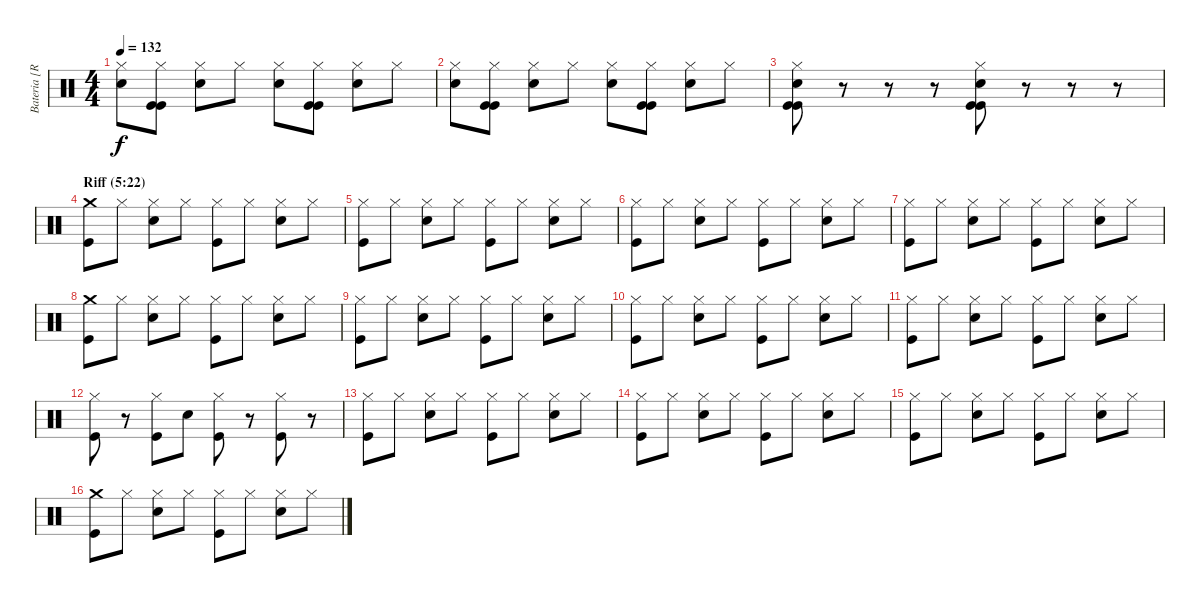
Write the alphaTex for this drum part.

\track ("Bateria [Ricardo Confessori]" "Bateria [R") {instrument percussion}
\staff {score}
\articulation defaults
\ts (4 4)
\tempo 132
\clef neutral
\ks c
("Hi-Hat (closed)" "Electric Snare (hit)").8{dy f} ("Hi-Hat (closed)" "Kick (hit)" "Kick (hit)").8 ("Hi-Hat (closed)" "Electric Snare (hit)").8 "Hi-Hat (closed)".8 ("Hi-Hat (closed)" "Electric Snare (hit)").8 ("Hi-Hat (closed)" "Kick (hit)" "Kick (hit)").8 ("Hi-Hat (closed)" "Electric Snare (hit)").8 "Hi-Hat (closed)".8 |
("Hi-Hat (closed)" "Electric Snare (hit)").8 ("Hi-Hat (closed)" "Kick (hit)" "Kick (hit)").8 ("Hi-Hat (closed)" "Electric Snare (hit)").8 "Hi-Hat (closed)".8 ("Hi-Hat (closed)" "Electric Snare (hit)").8 ("Hi-Hat (closed)" "Kick (hit)" "Kick (hit)").8 ("Hi-Hat (closed)" "Electric Snare (hit)").8 "Hi-Hat (closed)".8 |
("Hi-Hat (closed)" "Electric Snare (hit)" "Kick (hit)" "Kick (hit)").8 r.8 r.8 r.8 ("Hi-Hat (closed)" "Electric Snare (hit)" "Kick (hit)" "Kick (hit)").8 r.8 r.8 r.8 |
\section ("" "Riff (5:22)")
("Crash medium (hit)" "Kick (hit)").8 "Hi-Hat (closed)".8 ("Hi-Hat (closed)" "Electric Snare (hit)").8 "Hi-Hat (closed)".8 ("Hi-Hat (closed)" "Kick (hit)").8 "Hi-Hat (closed)".8 ("Hi-Hat (closed)" "Electric Snare (hit)").8 "Hi-Hat (closed)".8 |
("Hi-Hat (closed)" "Kick (hit)").8 "Hi-Hat (closed)".8 ("Hi-Hat (closed)" "Electric Snare (hit)").8 "Hi-Hat (closed)".8 ("Hi-Hat (closed)" "Kick (hit)").8 "Hi-Hat (closed)".8 ("Hi-Hat (closed)" "Electric Snare (hit)").8 "Hi-Hat (closed)".8 |
("Hi-Hat (closed)" "Kick (hit)").8 "Hi-Hat (closed)".8 ("Hi-Hat (closed)" "Electric Snare (hit)").8 "Hi-Hat (closed)".8 ("Hi-Hat (closed)" "Kick (hit)").8 "Hi-Hat (closed)".8 ("Hi-Hat (closed)" "Electric Snare (hit)").8 "Hi-Hat (closed)".8 |
("Hi-Hat (closed)" "Kick (hit)").8 "Hi-Hat (closed)".8 ("Hi-Hat (closed)" "Electric Snare (hit)").8 "Hi-Hat (closed)".8 ("Hi-Hat (closed)" "Kick (hit)").8 "Hi-Hat (closed)".8 ("Hi-Hat (closed)" "Electric Snare (hit)").8 "Hi-Hat (closed)".8 |
("Crash medium (hit)" "Kick (hit)").8 "Hi-Hat (closed)".8 ("Hi-Hat (closed)" "Electric Snare (hit)").8 "Hi-Hat (closed)".8 ("Hi-Hat (closed)" "Kick (hit)").8 "Hi-Hat (closed)".8 ("Hi-Hat (closed)" "Electric Snare (hit)").8 "Hi-Hat (closed)".8 |
("Hi-Hat (closed)" "Kick (hit)").8 "Hi-Hat (closed)".8 ("Hi-Hat (closed)" "Electric Snare (hit)").8 "Hi-Hat (closed)".8 ("Hi-Hat (closed)" "Kick (hit)").8 "Hi-Hat (closed)".8 ("Hi-Hat (closed)" "Electric Snare (hit)").8 "Hi-Hat (closed)".8 |
("Hi-Hat (closed)" "Kick (hit)").8 "Hi-Hat (closed)".8 ("Hi-Hat (closed)" "Electric Snare (hit)").8 "Hi-Hat (closed)".8 ("Hi-Hat (closed)" "Kick (hit)").8 "Hi-Hat (closed)".8 ("Hi-Hat (closed)" "Electric Snare (hit)").8 "Hi-Hat (closed)".8 |
("Hi-Hat (closed)" "Kick (hit)").8 "Hi-Hat (closed)".8 ("Hi-Hat (closed)" "Electric Snare (hit)").8 "Hi-Hat (closed)".8 ("Hi-Hat (closed)" "Kick (hit)").8 "Hi-Hat (closed)".8 ("Hi-Hat (closed)" "Electric Snare (hit)").8 "Hi-Hat (closed)".8 |
("Hi-Hat (closed)" "Kick (hit)").8 r.8 ("Hi-Hat (closed)" "Kick (hit)").8 "Electric Snare (hit)".8 ("Hi-Hat (closed)" "Kick (hit)").8 r.8 ("Hi-Hat (closed)" "Kick (hit)").8 r.8 |
("Hi-Hat (closed)" "Kick (hit)").8 "Hi-Hat (closed)".8 ("Hi-Hat (closed)" "Electric Snare (hit)").8 "Hi-Hat (closed)".8 ("Hi-Hat (closed)" "Kick (hit)").8 "Hi-Hat (closed)".8 ("Hi-Hat (closed)" "Electric Snare (hit)").8 "Hi-Hat (closed)".8 |
("Hi-Hat (closed)" "Kick (hit)").8 "Hi-Hat (closed)".8 ("Hi-Hat (closed)" "Electric Snare (hit)").8 "Hi-Hat (closed)".8 ("Hi-Hat (closed)" "Kick (hit)").8 "Hi-Hat (closed)".8 ("Hi-Hat (closed)" "Electric Snare (hit)").8 "Hi-Hat (closed)".8 |
("Hi-Hat (closed)" "Kick (hit)").8 "Hi-Hat (closed)".8 ("Hi-Hat (closed)" "Electric Snare (hit)").8 "Hi-Hat (closed)".8 ("Hi-Hat (closed)" "Kick (hit)").8 "Hi-Hat (closed)".8 ("Hi-Hat (closed)" "Electric Snare (hit)").8 "Hi-Hat (closed)".8 |
("Crash medium (hit)" "Kick (hit)").8 "Hi-Hat (closed)".8 ("Hi-Hat (closed)" "Electric Snare (hit)").8 "Hi-Hat (closed)".8 ("Hi-Hat (closed)" "Kick (hit)").8 "Hi-Hat (closed)".8 ("Hi-Hat (closed)" "Electric Snare (hit)").8 "Hi-Hat (closed)".8
